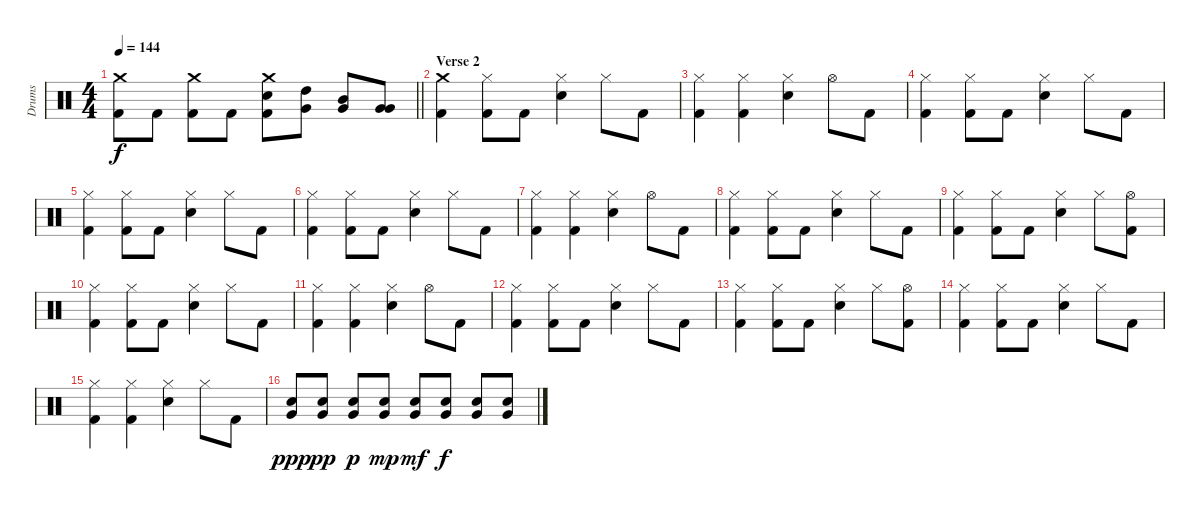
\track ("Drums" "Drums") {instrument percussion}
\staff {score}
\articulation defaults
\ts (4 4)
\tempo 144
\clef neutral
\barLineRight lightlight
\ks c
("Crash medium (hit)" "Kick (hit) 2").8{dy f} "Kick (hit) 2".8 ("Crash medium (hit)" "Kick (hit) 2").8 "Kick (hit) 2".8 ("Crash medium (hit)" "Electric Snare (hit)" "Kick (hit) 2").8 ("High Tom (hit)" "Very Low Tom (hit)").8 ("Mid Tom (hit)" "Very Low Tom (hit)").8 ("Very Low Tom (hit)" "Very Low Tom (hit)").8 |
\section ("" "Verse 2")
("Crash medium (hit)" "Kick (hit) 2").4 ("Hi-Hat (closed)" "Kick (hit) 2").8 "Kick (hit) 2".8 ("Hi-Hat (closed)" "Electric Snare (hit)").4 "Hi-Hat (closed)".8 "Kick (hit) 2".8 |
("Hi-Hat (closed)" "Kick (hit) 2").4 ("Hi-Hat (closed)" "Kick (hit) 2").4 ("Hi-Hat (closed)" "Electric Snare (hit)").4 "Hi-Hat (open)".8 "Kick (hit) 2".8 |
("Hi-Hat (closed)" "Kick (hit) 2").4 ("Hi-Hat (closed)" "Kick (hit) 2").8 "Kick (hit) 2".8 ("Hi-Hat (closed)" "Electric Snare (hit)").4 "Hi-Hat (closed)".8 "Kick (hit) 2".8 |
("Hi-Hat (closed)" "Kick (hit) 2").4 ("Hi-Hat (closed)" "Kick (hit) 2").8 "Kick (hit) 2".8 ("Hi-Hat (closed)" "Electric Snare (hit)").4 "Hi-Hat (closed)".8 "Kick (hit) 2".8 |
("Hi-Hat (closed)" "Kick (hit) 2").4 ("Hi-Hat (closed)" "Kick (hit) 2").8 "Kick (hit) 2".8 ("Hi-Hat (closed)" "Electric Snare (hit)").4 "Hi-Hat (closed)".8 "Kick (hit) 2".8 |
("Hi-Hat (closed)" "Kick (hit) 2").4 ("Hi-Hat (closed)" "Kick (hit) 2").4 ("Hi-Hat (closed)" "Electric Snare (hit)").4 "Hi-Hat (open)".8 "Kick (hit) 2".8 |
("Hi-Hat (closed)" "Kick (hit) 2").4 ("Hi-Hat (closed)" "Kick (hit) 2").8 "Kick (hit) 2".8 ("Hi-Hat (closed)" "Electric Snare (hit)").4 "Hi-Hat (closed)".8 "Kick (hit) 2".8 |
("Hi-Hat (closed)" "Kick (hit) 2").4 ("Hi-Hat (closed)" "Kick (hit) 2").8 "Kick (hit) 2".8 ("Hi-Hat (closed)" "Electric Snare (hit)").4 "Hi-Hat (closed)".8 ("Hi-Hat (open)" "Kick (hit) 2").8 |
("Hi-Hat (closed)" "Kick (hit) 2").4 ("Hi-Hat (closed)" "Kick (hit) 2").8 "Kick (hit) 2".8 ("Hi-Hat (closed)" "Electric Snare (hit)").4 "Hi-Hat (closed)".8 "Kick (hit) 2".8 |
("Hi-Hat (closed)" "Kick (hit) 2").4 ("Hi-Hat (closed)" "Kick (hit) 2").4 ("Hi-Hat (closed)" "Electric Snare (hit)").4 "Hi-Hat (open)".8 "Kick (hit) 2".8 |
("Hi-Hat (closed)" "Kick (hit) 2").4 ("Hi-Hat (closed)" "Kick (hit) 2").8 "Kick (hit) 2".8 ("Hi-Hat (closed)" "Electric Snare (hit)").4 "Hi-Hat (closed)".8 "Kick (hit) 2".8 |
("Hi-Hat (closed)" "Kick (hit) 2").4 ("Hi-Hat (closed)" "Kick (hit) 2").8 "Kick (hit) 2".8 ("Hi-Hat (closed)" "Electric Snare (hit)").4 "Hi-Hat (closed)".8 ("Hi-Hat (open)" "Kick (hit) 2").8 |
("Hi-Hat (closed)" "Kick (hit) 2").4 ("Hi-Hat (closed)" "Kick (hit) 2").8 "Kick (hit) 2".8 ("Hi-Hat (closed)" "Electric Snare (hit)").4 "Hi-Hat (closed)".8 "Kick (hit) 2".8 |
("Hi-Hat (closed)" "Kick (hit) 2").4 ("Hi-Hat (closed)" "Kick (hit) 2").4 ("Hi-Hat (closed)" "Electric Snare (hit)").4 "Hi-Hat (closed)".8 "Kick (hit) 2".8 |
("Very Low Tom (hit)" "Electric Snare (hit)").8{dy ppp} ("Very Low Tom (hit)" "Electric Snare (hit)").8{dy pp} ("Very Low Tom (hit)" "Electric Snare (hit)").8{dy p} ("Very Low Tom (hit)" "Electric Snare (hit)").8{dy mp} ("Very Low Tom (hit)" "Electric Snare (hit)").8{dy mf} ("Very Low Tom (hit)" "Electric Snare (hit)").8{dy f} ("Very Low Tom (hit)" "Electric Snare (hit)").8 ("Very Low Tom (hit)" "Electric Snare (hit)").8
